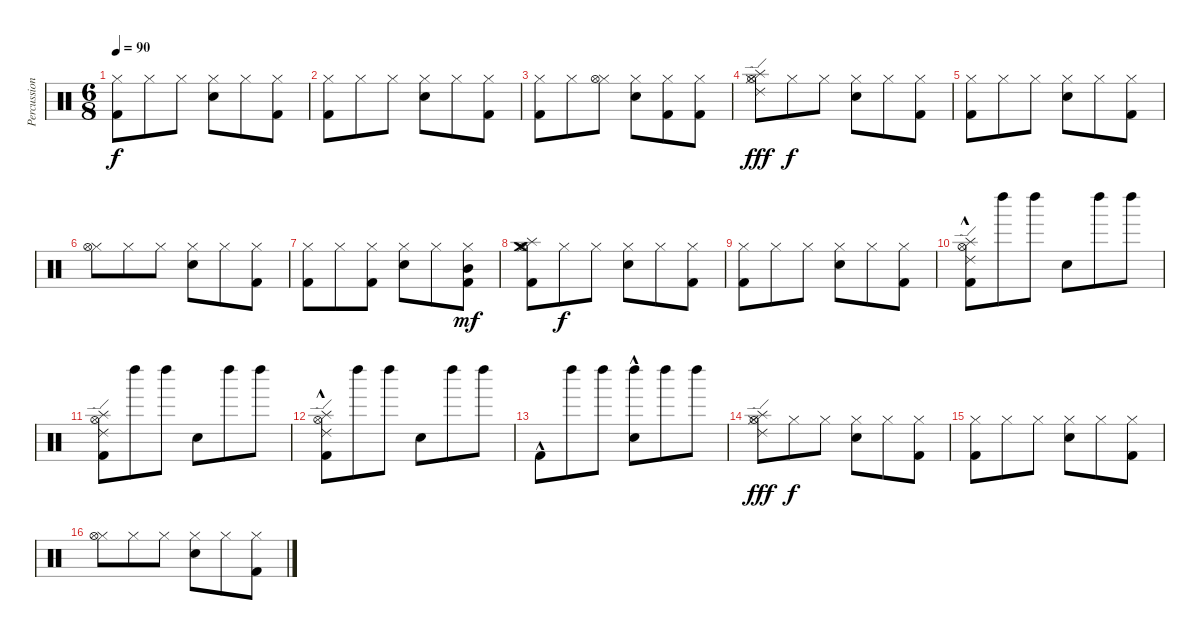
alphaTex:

\track ("Percussion" "Percussion") {instrument percussion}
\staff {score}
\articulation defaults
\ts (6 8)
\tempo 90
\clef neutral
\ks c
("Hi-Hat (closed)" "Kick (hit) 2").8{dy f} "Hi-Hat (closed)".8 "Hi-Hat (closed)".8 ("Hi-Hat (closed)" "Snare (hit) 2").8 "Hi-Hat (closed)".8 ("Hi-Hat (closed)" "Kick (hit) 2").8 |
("Hi-Hat (closed)" "Kick (hit) 2").8 "Hi-Hat (closed)".8 "Hi-Hat (closed)".8 ("Hi-Hat (closed)" "Snare (hit) 2").8 "Hi-Hat (closed)".8 ("Hi-Hat (closed)" "Kick (hit) 2").8 |
("Hi-Hat (closed)" "Kick (hit) 2").8 "Hi-Hat (closed)".8 ("Hi-Hat (closed)" "Hi-Hat (open)").8 ("Hi-Hat (closed)" "Snare (hit) 2").8 ("Hi-Hat (closed)" "Kick (hit) 2").8 ("Hi-Hat (closed)" "Kick (hit) 2").8 |
("Hi-Hat (closed)" "Hi-Hat (open)" "Splash (hit)" "Ride (edge) 2").8{dy fff} "Hi-Hat (closed)".8{dy f} "Hi-Hat (closed)".8 ("Hi-Hat (closed)" "Snare (hit) 2").8 "Hi-Hat (closed)".8 ("Hi-Hat (closed)" "Kick (hit) 2").8 |
("Hi-Hat (closed)" "Kick (hit) 2").8 "Hi-Hat (closed)".8 "Hi-Hat (closed)".8 ("Hi-Hat (closed)" "Snare (hit) 2").8 "Hi-Hat (closed)".8 ("Hi-Hat (closed)" "Kick (hit) 2").8 |
("Hi-Hat (closed)" "Hi-Hat (open)").8 "Hi-Hat (closed)".8 "Hi-Hat (closed)".8 ("Hi-Hat (closed)" "Snare (hit) 2").8 "Hi-Hat (closed)".8 ("Hi-Hat (closed)" "Kick (hit) 2").8 |
("Hi-Hat (closed)" "Kick (hit) 2").8 "Hi-Hat (closed)".8 ("Hi-Hat (closed)" "Kick (hit) 2").8 ("Hi-Hat (closed)" "Snare (hit) 2").8 "Hi-Hat (closed)".8 ("Hi-Hat (closed)" "Mid Tom (hit)" "Kick (hit) 2").8{dy mf} |
("Hi-Hat (closed)" "Hi-Hat (open)" "Splash (hit)" "Crash medium (hit)" "Kick (hit) 2").8 "Hi-Hat (closed)".8{dy f} "Hi-Hat (closed)".8 ("Hi-Hat (closed)" "Snare (hit) 2").8 "Hi-Hat (closed)".8 ("Hi-Hat (closed)" "Kick (hit) 2").8 |
("Hi-Hat (closed)" "Kick (hit) 2").8 "Hi-Hat (closed)".8 "Hi-Hat (closed)".8 ("Hi-Hat (closed)" "Snare (hit) 2").8 "Hi-Hat (closed)".8 ("Hi-Hat (closed)" "Kick (hit) 2").8 |
("Hi-Hat (open)" "Splash (hit)" "Ride (edge) 2" "Kick (hit) 2"{hac}).8 "Left Maraca (hit)".8 "Left Maraca (hit)".8 "Snare (hit) 2".8 "Left Maraca (hit)".8 "Left Maraca (hit)".8 |
("Hi-Hat (open)" "Splash (hit)" "Ride (edge) 2" "Kick (hit) 2").8 "Left Maraca (hit)".8 "Left Maraca (hit)".8 "Snare (hit) 2".8 "Left Maraca (hit)".8 "Left Maraca (hit)".8 |
("Hi-Hat (open)" "Splash (hit)" "Ride (edge) 2" "Kick (hit) 2"{hac}).8 "Left Maraca (hit)".8 "Left Maraca (hit)".8 "Snare (hit) 2".8 "Left Maraca (hit)".8 "Left Maraca (hit)".8 |
"Kick (hit) 2"{hac}.8 "Left Maraca (hit)".8 "Left Maraca (hit)".8 ("Left Maraca (hit)" "Snare (hit) 2"{hac}).8 "Left Maraca (hit)".8 "Left Maraca (hit)".8 |
("Hi-Hat (closed)" "Hi-Hat (open)" "Splash (hit)" "Ride (edge) 2").8{dy fff} "Hi-Hat (closed)".8{dy f} "Hi-Hat (closed)".8 ("Hi-Hat (closed)" "Snare (hit) 2").8 "Hi-Hat (closed)".8 ("Hi-Hat (closed)" "Kick (hit) 2").8 |
("Hi-Hat (closed)" "Kick (hit) 2").8 "Hi-Hat (closed)".8 "Hi-Hat (closed)".8 ("Hi-Hat (closed)" "Snare (hit) 2").8 "Hi-Hat (closed)".8 ("Hi-Hat (closed)" "Kick (hit) 2").8 |
("Hi-Hat (closed)" "Hi-Hat (open)").8 "Hi-Hat (closed)".8 "Hi-Hat (closed)".8 ("Hi-Hat (closed)" "Snare (hit) 2").8 "Hi-Hat (closed)".8 ("Hi-Hat (closed)" "Kick (hit) 2").8
